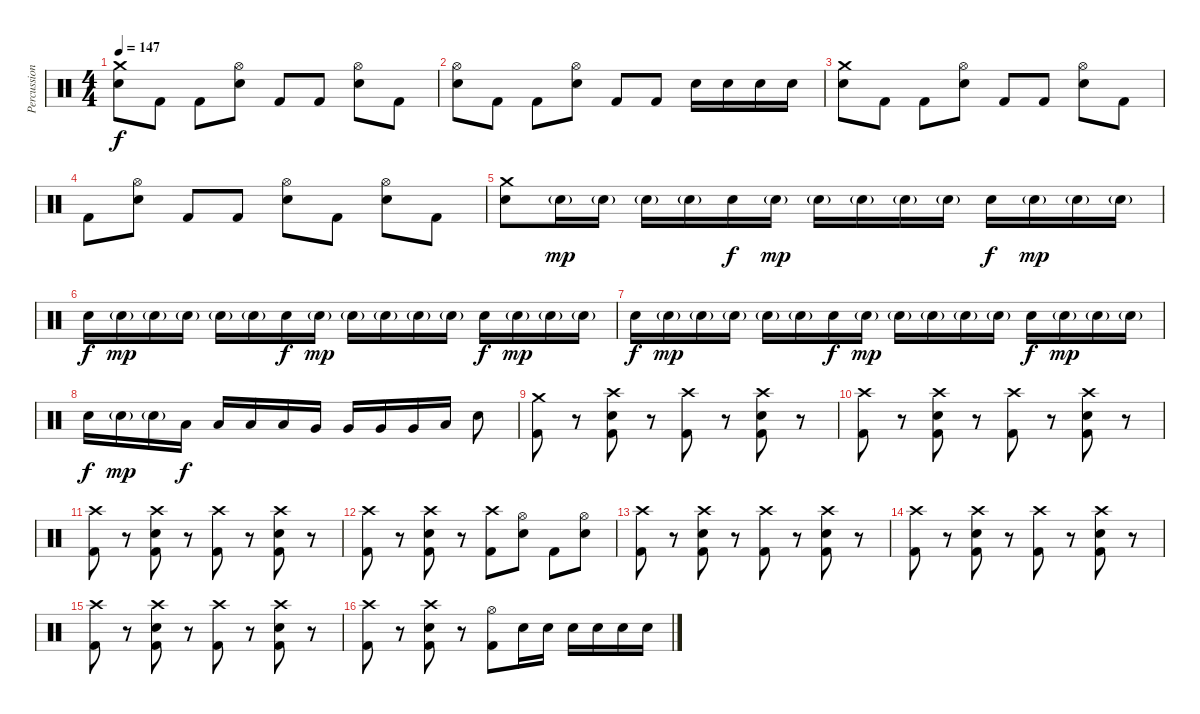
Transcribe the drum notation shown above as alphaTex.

\track ("Percussion" "Percussion") {instrument percussion}
\staff {score}
\articulation defaults
\ts (4 4)
\tempo 147
\clef neutral
\ks c
("Crash medium (hit)" "Electric Snare (hit)").8{dy f} "Kick (hit) 2".8 "Kick (hit) 2".8 ("Hi-Hat (open)" "Electric Snare (hit)").8 "Kick (hit) 2".8 "Kick (hit) 2".8 ("Hi-Hat (open)" "Electric Snare (hit)").8 "Kick (hit) 2".8 |
("Hi-Hat (open)" "Electric Snare (hit)").8 "Kick (hit) 2".8 "Kick (hit) 2".8 ("Hi-Hat (open)" "Electric Snare (hit)").8 "Kick (hit) 2".8 "Kick (hit) 2".8 "Electric Snare (hit)".16 "Electric Snare (hit)".16 "Electric Snare (hit)".16 "Electric Snare (hit)".16 |
("Crash medium (hit)" "Electric Snare (hit)").8 "Kick (hit) 2".8 "Kick (hit) 2".8 ("Hi-Hat (open)" "Electric Snare (hit)").8 "Kick (hit) 2".8 "Kick (hit) 2".8 ("Hi-Hat (open)" "Electric Snare (hit)").8 "Kick (hit) 2".8 |
"Kick (hit) 2".8 ("Hi-Hat (open)" "Electric Snare (hit)").8 "Kick (hit) 2".8 "Kick (hit) 2".8 ("Electric Snare (hit)" "Hi-Hat (open)").8 "Kick (hit) 2".8 ("Electric Snare (hit)" "Hi-Hat (open)").8 "Kick (hit) 2".8 |
("Crash medium (hit)" "Electric Snare (hit)").8 "Electric Snare (hit)"{g}.16{dy mp} "Electric Snare (hit)"{g}.16 "Electric Snare (hit)"{g}.16 "Electric Snare (hit)"{g}.16 "Electric Snare (hit)".16{dy f} "Electric Snare (hit)"{g}.16{dy mp} "Electric Snare (hit)"{g}.16 "Electric Snare (hit)"{g}.16 "Electric Snare (hit)"{g}.16 "Electric Snare (hit)"{g}.16 "Electric Snare (hit)".16{dy f} "Electric Snare (hit)"{g}.16{dy mp} "Electric Snare (hit)"{g}.16 "Electric Snare (hit)"{g}.16 |
"Electric Snare (hit)".16{dy f} "Electric Snare (hit)"{g}.16{dy mp} "Electric Snare (hit)"{g}.16 "Electric Snare (hit)"{g}.16 "Electric Snare (hit)"{g}.16 "Electric Snare (hit)"{g}.16 "Electric Snare (hit)".16{dy f} "Electric Snare (hit)"{g}.16{dy mp} "Electric Snare (hit)"{g}.16 "Electric Snare (hit)"{g}.16 "Electric Snare (hit)"{g}.16 "Electric Snare (hit)"{g}.16 "Electric Snare (hit)".16{dy f} "Electric Snare (hit)"{g}.16{dy mp} "Electric Snare (hit)"{g}.16 "Electric Snare (hit)"{g}.16 |
"Electric Snare (hit)".16{dy f} "Electric Snare (hit)"{g}.16{dy mp} "Electric Snare (hit)"{g}.16 "Electric Snare (hit)"{g}.16 "Electric Snare (hit)"{g}.16 "Electric Snare (hit)"{g}.16 "Electric Snare (hit)".16{dy f} "Electric Snare (hit)"{g}.16{dy mp} "Electric Snare (hit)"{g}.16 "Electric Snare (hit)"{g}.16 "Electric Snare (hit)"{g}.16 "Electric Snare (hit)"{g}.16 "Electric Snare (hit)".16{dy f} "Electric Snare (hit)"{g}.16{dy mp} "Electric Snare (hit)"{g}.16 "Electric Snare (hit)"{g}.16 |
"Electric Snare (hit)".16{dy f} "Electric Snare (hit)"{g}.16{dy mp} "Electric Snare (hit)"{g}.16 "Low Tom (hit)".16{dy f} "Low Tom (hit)".16 "Low Tom (hit)".16 "Low Tom (hit)".16 "Very Low Tom (hit)".16 "Very Low Tom (hit)".16 "Very Low Tom (hit)".16 "Very Low Tom (hit)".16 "Low Floor Tom (hit)".16 "Electric Snare (hit)".8 |
("Crash medium (hit)" "Kick (hit) 2").8 r.8 ("Crash high (hit)" "Kick (hit) 2" "Electric Snare (hit)").8 r.8 ("Crash high (hit)" "Kick (hit) 2").8 r.8 ("Crash high (hit)" "Kick (hit) 2" "Electric Snare (hit)").8 r.8 |
("Crash high (hit)" "Kick (hit) 2").8 r.8 ("Crash high (hit)" "Kick (hit) 2" "Electric Snare (hit)").8 r.8 ("Crash high (hit)" "Kick (hit) 2").8 r.8 ("Crash high (hit)" "Kick (hit) 2" "Electric Snare (hit)").8 r.8 |
("Crash high (hit)" "Kick (hit) 2").8 r.8 ("Crash high (hit)" "Kick (hit) 2" "Electric Snare (hit)").8 r.8 ("Crash high (hit)" "Kick (hit) 2").8 r.8 ("Crash high (hit)" "Kick (hit) 2" "Electric Snare (hit)").8 r.8 |
("Crash high (hit)" "Kick (hit) 2").8 r.8 ("Crash high (hit)" "Kick (hit) 2" "Electric Snare (hit)").8 r.8 ("Crash high (hit)" "Kick (hit) 2").8 ("Hi-Hat (open)" "Electric Snare (hit)").8 "Kick (hit) 2".8 ("Hi-Hat (open)" "Electric Snare (hit)").8 |
("Crash high (hit)" "Kick (hit) 2").8 r.8 ("Crash high (hit)" "Kick (hit) 2" "Electric Snare (hit)").8 r.8 ("Crash high (hit)" "Kick (hit) 2").8 r.8 ("Crash high (hit)" "Kick (hit) 2" "Electric Snare (hit)").8 r.8 |
("Crash high (hit)" "Kick (hit) 2").8 r.8 ("Crash high (hit)" "Kick (hit) 2" "Electric Snare (hit)").8 r.8 ("Crash high (hit)" "Kick (hit) 2").8 r.8 ("Crash high (hit)" "Kick (hit) 2" "Electric Snare (hit)").8 r.8 |
("Crash high (hit)" "Kick (hit) 2").8 r.8 ("Crash high (hit)" "Kick (hit) 2" "Electric Snare (hit)").8 r.8 ("Crash high (hit)" "Kick (hit) 2").8 r.8 ("Crash high (hit)" "Kick (hit) 2" "Electric Snare (hit)").8 r.8 |
("Crash high (hit)" "Kick (hit) 2").8 r.8 ("Crash high (hit)" "Kick (hit) 2" "Electric Snare (hit)").8 r.8 ("Hi-Hat (open)" "Kick (hit) 2").8 "Electric Snare (hit)".16 "Electric Snare (hit)".16 "Electric Snare (hit)".16 "Electric Snare (hit)".16 "Electric Snare (hit)".16 "Electric Snare (hit)".16
